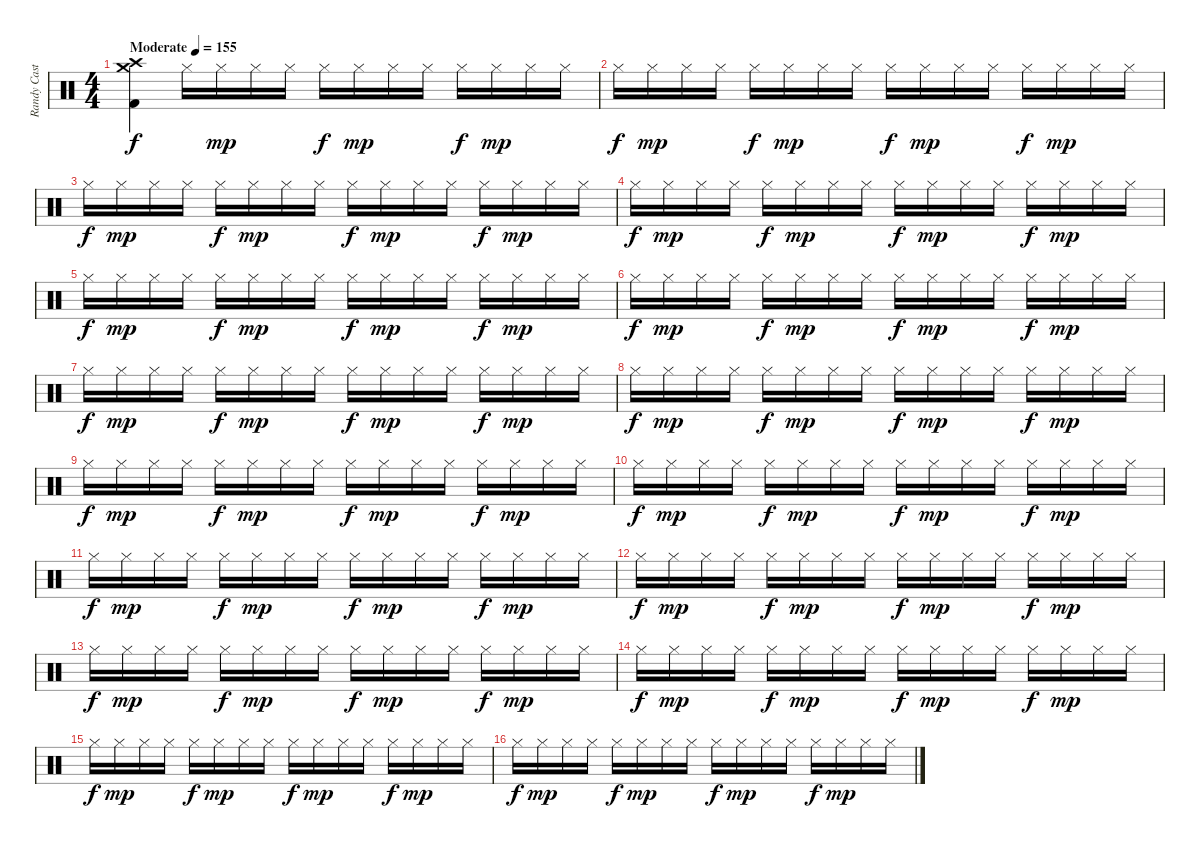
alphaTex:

\track ("Randy Castillo - Drums" "Randy Cast") {instrument percussion}
\staff {score}
\articulation defaults
\ts (4 4)
\tempo (155 "Moderate")
\clef neutral
\ks c
("Crash medium (hit)" "Crash high (hit)" "Kick (hit) 2").4{dy f} "Hi-Hat (closed)".16 "Hi-Hat (closed)".16{dy mp} "Hi-Hat (closed)".16 "Hi-Hat (closed)".16 "Hi-Hat (closed)".16{dy f} "Hi-Hat (closed)".16{dy mp} "Hi-Hat (closed)".16 "Hi-Hat (closed)".16 "Hi-Hat (closed)".16{dy f} "Hi-Hat (closed)".16{dy mp} "Hi-Hat (closed)".16 "Hi-Hat (closed)".16 |
"Hi-Hat (closed)".16{dy f} "Hi-Hat (closed)".16{dy mp} "Hi-Hat (closed)".16 "Hi-Hat (closed)".16 "Hi-Hat (closed)".16{dy f} "Hi-Hat (closed)".16{dy mp} "Hi-Hat (closed)".16 "Hi-Hat (closed)".16 "Hi-Hat (closed)".16{dy f} "Hi-Hat (closed)".16{dy mp} "Hi-Hat (closed)".16 "Hi-Hat (closed)".16 "Hi-Hat (closed)".16{dy f} "Hi-Hat (closed)".16{dy mp} "Hi-Hat (closed)".16 "Hi-Hat (closed)".16 |
"Hi-Hat (closed)".16{dy f} "Hi-Hat (closed)".16{dy mp} "Hi-Hat (closed)".16 "Hi-Hat (closed)".16 "Hi-Hat (closed)".16{dy f} "Hi-Hat (closed)".16{dy mp} "Hi-Hat (closed)".16 "Hi-Hat (closed)".16 "Hi-Hat (closed)".16{dy f} "Hi-Hat (closed)".16{dy mp} "Hi-Hat (closed)".16 "Hi-Hat (closed)".16 "Hi-Hat (closed)".16{dy f} "Hi-Hat (closed)".16{dy mp} "Hi-Hat (closed)".16 "Hi-Hat (closed)".16 |
"Hi-Hat (closed)".16{dy f} "Hi-Hat (closed)".16{dy mp} "Hi-Hat (closed)".16 "Hi-Hat (closed)".16 "Hi-Hat (closed)".16{dy f} "Hi-Hat (closed)".16{dy mp} "Hi-Hat (closed)".16 "Hi-Hat (closed)".16 "Hi-Hat (closed)".16{dy f} "Hi-Hat (closed)".16{dy mp} "Hi-Hat (closed)".16 "Hi-Hat (closed)".16 "Hi-Hat (closed)".16{dy f} "Hi-Hat (closed)".16{dy mp} "Hi-Hat (closed)".16 "Hi-Hat (closed)".16 |
"Hi-Hat (closed)".16{dy f} "Hi-Hat (closed)".16{dy mp} "Hi-Hat (closed)".16 "Hi-Hat (closed)".16 "Hi-Hat (closed)".16{dy f} "Hi-Hat (closed)".16{dy mp} "Hi-Hat (closed)".16 "Hi-Hat (closed)".16 "Hi-Hat (closed)".16{dy f} "Hi-Hat (closed)".16{dy mp} "Hi-Hat (closed)".16 "Hi-Hat (closed)".16 "Hi-Hat (closed)".16{dy f} "Hi-Hat (closed)".16{dy mp} "Hi-Hat (closed)".16 "Hi-Hat (closed)".16 |
"Hi-Hat (closed)".16{dy f} "Hi-Hat (closed)".16{dy mp} "Hi-Hat (closed)".16 "Hi-Hat (closed)".16 "Hi-Hat (closed)".16{dy f} "Hi-Hat (closed)".16{dy mp} "Hi-Hat (closed)".16 "Hi-Hat (closed)".16 "Hi-Hat (closed)".16{dy f} "Hi-Hat (closed)".16{dy mp} "Hi-Hat (closed)".16 "Hi-Hat (closed)".16 "Hi-Hat (closed)".16{dy f} "Hi-Hat (closed)".16{dy mp} "Hi-Hat (closed)".16 "Hi-Hat (closed)".16 |
"Hi-Hat (closed)".16{dy f} "Hi-Hat (closed)".16{dy mp} "Hi-Hat (closed)".16 "Hi-Hat (closed)".16 "Hi-Hat (closed)".16{dy f} "Hi-Hat (closed)".16{dy mp} "Hi-Hat (closed)".16 "Hi-Hat (closed)".16 "Hi-Hat (closed)".16{dy f} "Hi-Hat (closed)".16{dy mp} "Hi-Hat (closed)".16 "Hi-Hat (closed)".16 "Hi-Hat (closed)".16{dy f} "Hi-Hat (closed)".16{dy mp} "Hi-Hat (closed)".16 "Hi-Hat (closed)".16 |
"Hi-Hat (closed)".16{dy f} "Hi-Hat (closed)".16{dy mp} "Hi-Hat (closed)".16 "Hi-Hat (closed)".16 "Hi-Hat (closed)".16{dy f} "Hi-Hat (closed)".16{dy mp} "Hi-Hat (closed)".16 "Hi-Hat (closed)".16 "Hi-Hat (closed)".16{dy f} "Hi-Hat (closed)".16{dy mp} "Hi-Hat (closed)".16 "Hi-Hat (closed)".16 "Hi-Hat (closed)".16{dy f} "Hi-Hat (closed)".16{dy mp} "Hi-Hat (closed)".16 "Hi-Hat (closed)".16 |
"Hi-Hat (closed)".16{dy f} "Hi-Hat (closed)".16{dy mp} "Hi-Hat (closed)".16 "Hi-Hat (closed)".16 "Hi-Hat (closed)".16{dy f} "Hi-Hat (closed)".16{dy mp} "Hi-Hat (closed)".16 "Hi-Hat (closed)".16 "Hi-Hat (closed)".16{dy f} "Hi-Hat (closed)".16{dy mp} "Hi-Hat (closed)".16 "Hi-Hat (closed)".16 "Hi-Hat (closed)".16{dy f} "Hi-Hat (closed)".16{dy mp} "Hi-Hat (closed)".16 "Hi-Hat (closed)".16 |
"Hi-Hat (closed)".16{dy f} "Hi-Hat (closed)".16{dy mp} "Hi-Hat (closed)".16 "Hi-Hat (closed)".16 "Hi-Hat (closed)".16{dy f} "Hi-Hat (closed)".16{dy mp} "Hi-Hat (closed)".16 "Hi-Hat (closed)".16 "Hi-Hat (closed)".16{dy f} "Hi-Hat (closed)".16{dy mp} "Hi-Hat (closed)".16 "Hi-Hat (closed)".16 "Hi-Hat (closed)".16{dy f} "Hi-Hat (closed)".16{dy mp} "Hi-Hat (closed)".16 "Hi-Hat (closed)".16 |
"Hi-Hat (closed)".16{dy f} "Hi-Hat (closed)".16{dy mp} "Hi-Hat (closed)".16 "Hi-Hat (closed)".16 "Hi-Hat (closed)".16{dy f} "Hi-Hat (closed)".16{dy mp} "Hi-Hat (closed)".16 "Hi-Hat (closed)".16 "Hi-Hat (closed)".16{dy f} "Hi-Hat (closed)".16{dy mp} "Hi-Hat (closed)".16 "Hi-Hat (closed)".16 "Hi-Hat (closed)".16{dy f} "Hi-Hat (closed)".16{dy mp} "Hi-Hat (closed)".16 "Hi-Hat (closed)".16 |
"Hi-Hat (closed)".16{dy f} "Hi-Hat (closed)".16{dy mp} "Hi-Hat (closed)".16 "Hi-Hat (closed)".16 "Hi-Hat (closed)".16{dy f} "Hi-Hat (closed)".16{dy mp} "Hi-Hat (closed)".16 "Hi-Hat (closed)".16 "Hi-Hat (closed)".16{dy f} "Hi-Hat (closed)".16{dy mp} "Hi-Hat (closed)".16 "Hi-Hat (closed)".16 "Hi-Hat (closed)".16{dy f} "Hi-Hat (closed)".16{dy mp} "Hi-Hat (closed)".16 "Hi-Hat (closed)".16 |
"Hi-Hat (closed)".16{dy f} "Hi-Hat (closed)".16{dy mp} "Hi-Hat (closed)".16 "Hi-Hat (closed)".16 "Hi-Hat (closed)".16{dy f} "Hi-Hat (closed)".16{dy mp} "Hi-Hat (closed)".16 "Hi-Hat (closed)".16 "Hi-Hat (closed)".16{dy f} "Hi-Hat (closed)".16{dy mp} "Hi-Hat (closed)".16 "Hi-Hat (closed)".16 "Hi-Hat (closed)".16{dy f} "Hi-Hat (closed)".16{dy mp} "Hi-Hat (closed)".16 "Hi-Hat (closed)".16 |
"Hi-Hat (closed)".16{dy f} "Hi-Hat (closed)".16{dy mp} "Hi-Hat (closed)".16 "Hi-Hat (closed)".16 "Hi-Hat (closed)".16{dy f} "Hi-Hat (closed)".16{dy mp} "Hi-Hat (closed)".16 "Hi-Hat (closed)".16 "Hi-Hat (closed)".16{dy f} "Hi-Hat (closed)".16{dy mp} "Hi-Hat (closed)".16 "Hi-Hat (closed)".16 "Hi-Hat (closed)".16{dy f} "Hi-Hat (closed)".16{dy mp} "Hi-Hat (closed)".16 "Hi-Hat (closed)".16 |
"Hi-Hat (closed)".16{dy f} "Hi-Hat (closed)".16{dy mp} "Hi-Hat (closed)".16 "Hi-Hat (closed)".16 "Hi-Hat (closed)".16{dy f} "Hi-Hat (closed)".16{dy mp} "Hi-Hat (closed)".16 "Hi-Hat (closed)".16 "Hi-Hat (closed)".16{dy f} "Hi-Hat (closed)".16{dy mp} "Hi-Hat (closed)".16 "Hi-Hat (closed)".16 "Hi-Hat (closed)".16{dy f} "Hi-Hat (closed)".16{dy mp} "Hi-Hat (closed)".16 "Hi-Hat (closed)".16 |
"Hi-Hat (closed)".16{dy f} "Hi-Hat (closed)".16{dy mp} "Hi-Hat (closed)".16 "Hi-Hat (closed)".16 "Hi-Hat (closed)".16{dy f} "Hi-Hat (closed)".16{dy mp} "Hi-Hat (closed)".16 "Hi-Hat (closed)".16 "Hi-Hat (closed)".16{dy f} "Hi-Hat (closed)".16{dy mp} "Hi-Hat (closed)".16 "Hi-Hat (closed)".16 "Hi-Hat (closed)".16{dy f} "Hi-Hat (closed)".16{dy mp} "Hi-Hat (closed)".16 "Hi-Hat (closed)".16
